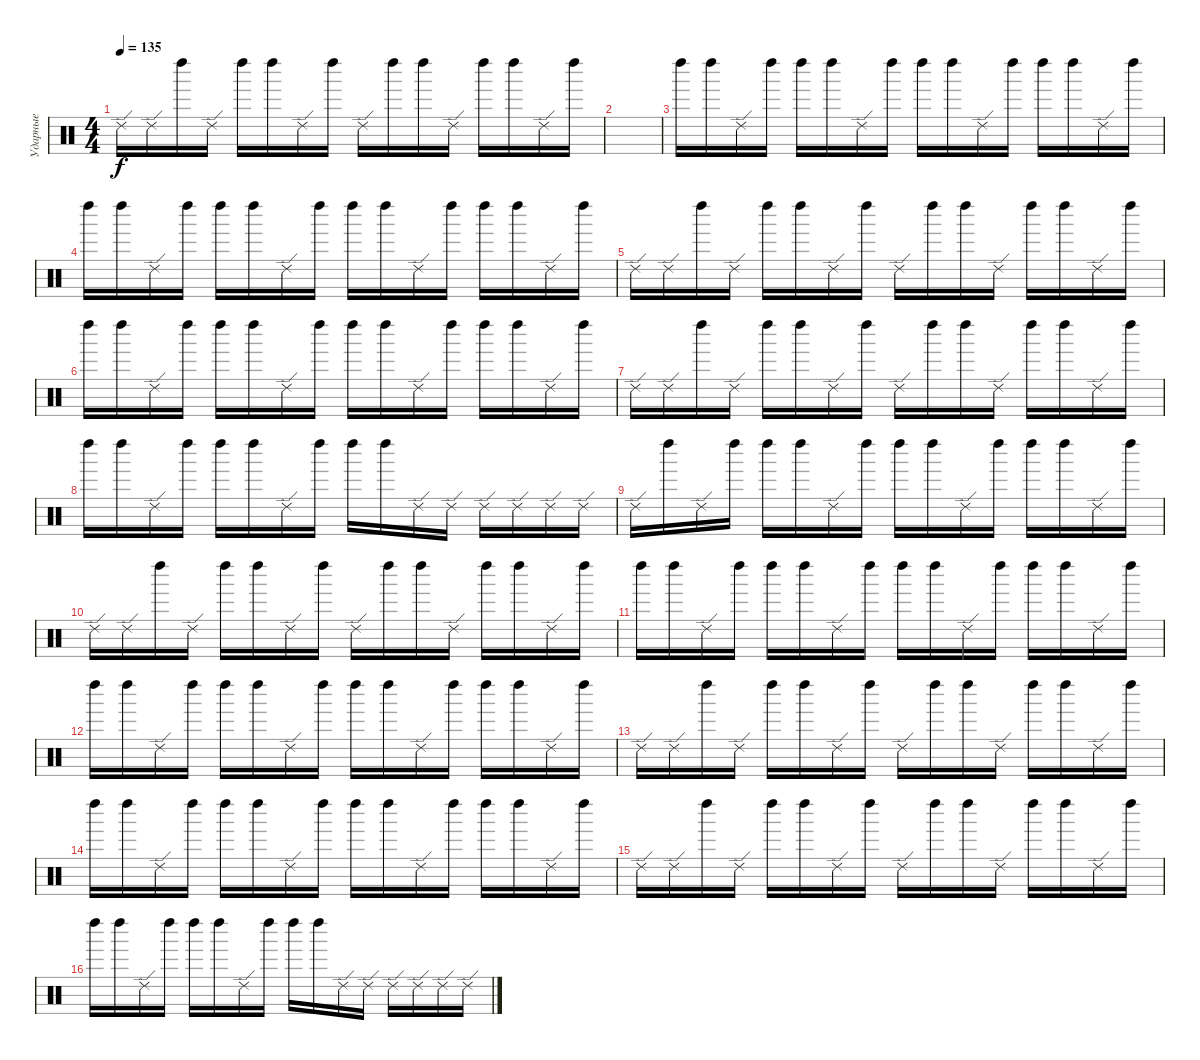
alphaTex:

\track ("Ударные" "Ударные") {instrument percussion}
\staff {score}
\articulation defaults
\ts (4 4)
\tempo 135
\clef neutral
\ks c "Ride (edge) 2".16{dy f} "Ride (edge) 2".16 "Left Maraca (hit)".16 "Ride (edge) 2".16 "Left Maraca (hit)".16 "Left Maraca (hit)".16 "Ride (edge) 2".16 "Left Maraca (hit)".16 "Ride (edge) 2".16 "Left Maraca (hit)".16 "Left Maraca (hit)".16 "Ride (edge) 2".16 "Left Maraca (hit)".16 "Left Maraca (hit)".16 "Ride (edge) 2".16 "Left Maraca (hit)".16
|
|
"Left Maraca (hit)".16 "Left Maraca (hit)".16 "Ride (edge) 2".16 "Left Maraca (hit)".16 "Left Maraca (hit)".16 "Left Maraca (hit)".16 "Ride (edge) 2".16 "Left Maraca (hit)".16 "Left Maraca (hit)".16 "Left Maraca (hit)".16 "Ride (edge) 2".16 "Left Maraca (hit)".16 "Left Maraca (hit)".16 "Left Maraca (hit)".16 "Ride (edge) 2".16 "Left Maraca (hit)".16 |
"Left Maraca (hit)".16 "Left Maraca (hit)".16 "Ride (edge) 2".16 "Left Maraca (hit)".16 "Left Maraca (hit)".16 "Left Maraca (hit)".16 "Ride (edge) 2".16 "Left Maraca (hit)".16 "Left Maraca (hit)".16 "Left Maraca (hit)".16 "Ride (edge) 2".16 "Left Maraca (hit)".16 "Left Maraca (hit)".16 "Left Maraca (hit)".16 "Ride (edge) 2".16 "Left Maraca (hit)".16 |
"Ride (edge) 2".16 "Ride (edge) 2".16 "Left Maraca (hit)".16 "Ride (edge) 2".16 "Left Maraca (hit)".16 "Left Maraca (hit)".16 "Ride (edge) 2".16 "Left Maraca (hit)".16 "Ride (edge) 2".16 "Left Maraca (hit)".16 "Left Maraca (hit)".16 "Ride (edge) 2".16 "Left Maraca (hit)".16 "Left Maraca (hit)".16 "Ride (edge) 2".16 "Left Maraca (hit)".16 |
"Left Maraca (hit)".16 "Left Maraca (hit)".16 "Ride (edge) 2".16 "Left Maraca (hit)".16 "Left Maraca (hit)".16 "Left Maraca (hit)".16 "Ride (edge) 2".16 "Left Maraca (hit)".16 "Left Maraca (hit)".16 "Left Maraca (hit)".16 "Ride (edge) 2".16 "Left Maraca (hit)".16 "Left Maraca (hit)".16 "Left Maraca (hit)".16 "Ride (edge) 2".16 "Left Maraca (hit)".16 |
"Ride (edge) 2".16 "Ride (edge) 2".16 "Left Maraca (hit)".16 "Ride (edge) 2".16 "Left Maraca (hit)".16 "Left Maraca (hit)".16 "Ride (edge) 2".16 "Left Maraca (hit)".16 "Ride (edge) 2".16 "Left Maraca (hit)".16 "Left Maraca (hit)".16 "Ride (edge) 2".16 "Left Maraca (hit)".16 "Left Maraca (hit)".16 "Ride (edge) 2".16 "Left Maraca (hit)".16 |
"Left Maraca (hit)".16 "Left Maraca (hit)".16 "Ride (edge) 2".16 "Left Maraca (hit)".16 "Left Maraca (hit)".16 "Left Maraca (hit)".16 "Ride (edge) 2".16 "Left Maraca (hit)".16 "Left Maraca (hit)".16 "Left Maraca (hit)".16 "Ride (edge) 2".16 "Ride (edge) 2".16 "Ride (edge) 2".16 "Ride (edge) 2".16 "Ride (edge) 2".16 "Ride (edge) 2".16 |
"Ride (edge) 2".16 "Left Maraca (hit)".16 "Ride (edge) 2".16 "Left Maraca (hit)".16 "Left Maraca (hit)".16 "Left Maraca (hit)".16 "Ride (edge) 2".16 "Left Maraca (hit)".16 "Left Maraca (hit)".16 "Left Maraca (hit)".16 "Ride (edge) 2".16 "Left Maraca (hit)".16 "Left Maraca (hit)".16 "Left Maraca (hit)".16 "Ride (edge) 2".16 "Left Maraca (hit)".16 |
"Ride (edge) 2".16 "Ride (edge) 2".16 "Left Maraca (hit)".16 "Ride (edge) 2".16 "Left Maraca (hit)".16 "Left Maraca (hit)".16 "Ride (edge) 2".16 "Left Maraca (hit)".16 "Ride (edge) 2".16 "Left Maraca (hit)".16 "Left Maraca (hit)".16 "Ride (edge) 2".16 "Left Maraca (hit)".16 "Left Maraca (hit)".16 "Ride (edge) 2".16 "Left Maraca (hit)".16 |
"Left Maraca (hit)".16 "Left Maraca (hit)".16 "Ride (edge) 2".16 "Left Maraca (hit)".16 "Left Maraca (hit)".16 "Left Maraca (hit)".16 "Ride (edge) 2".16 "Left Maraca (hit)".16 "Left Maraca (hit)".16 "Left Maraca (hit)".16 "Ride (edge) 2".16 "Left Maraca (hit)".16 "Left Maraca (hit)".16 "Left Maraca (hit)".16 "Ride (edge) 2".16 "Left Maraca (hit)".16 |
"Left Maraca (hit)".16 "Left Maraca (hit)".16 "Ride (edge) 2".16 "Left Maraca (hit)".16 "Left Maraca (hit)".16 "Left Maraca (hit)".16 "Ride (edge) 2".16 "Left Maraca (hit)".16 "Left Maraca (hit)".16 "Left Maraca (hit)".16 "Ride (edge) 2".16 "Left Maraca (hit)".16 "Left Maraca (hit)".16 "Left Maraca (hit)".16 "Ride (edge) 2".16 "Left Maraca (hit)".16 |
"Ride (edge) 2".16 "Ride (edge) 2".16 "Left Maraca (hit)".16 "Ride (edge) 2".16 "Left Maraca (hit)".16 "Left Maraca (hit)".16 "Ride (edge) 2".16 "Left Maraca (hit)".16 "Ride (edge) 2".16 "Left Maraca (hit)".16 "Left Maraca (hit)".16 "Ride (edge) 2".16 "Left Maraca (hit)".16 "Left Maraca (hit)".16 "Ride (edge) 2".16 "Left Maraca (hit)".16 |
"Left Maraca (hit)".16 "Left Maraca (hit)".16 "Ride (edge) 2".16 "Left Maraca (hit)".16 "Left Maraca (hit)".16 "Left Maraca (hit)".16 "Ride (edge) 2".16 "Left Maraca (hit)".16 "Left Maraca (hit)".16 "Left Maraca (hit)".16 "Ride (edge) 2".16 "Left Maraca (hit)".16 "Left Maraca (hit)".16 "Left Maraca (hit)".16 "Ride (edge) 2".16 "Left Maraca (hit)".16 |
"Ride (edge) 2".16 "Ride (edge) 2".16 "Left Maraca (hit)".16 "Ride (edge) 2".16 "Left Maraca (hit)".16 "Left Maraca (hit)".16 "Ride (edge) 2".16 "Left Maraca (hit)".16 "Ride (edge) 2".16 "Left Maraca (hit)".16 "Left Maraca (hit)".16 "Ride (edge) 2".16 "Left Maraca (hit)".16 "Left Maraca (hit)".16 "Ride (edge) 2".16 "Left Maraca (hit)".16 |
"Left Maraca (hit)".16 "Left Maraca (hit)".16 "Ride (edge) 2".16 "Left Maraca (hit)".16 "Left Maraca (hit)".16 "Left Maraca (hit)".16 "Ride (edge) 2".16 "Left Maraca (hit)".16 "Left Maraca (hit)".16 "Left Maraca (hit)".16 "Ride (edge) 2".16 "Ride (edge) 2".16 "Ride (edge) 2".16 "Ride (edge) 2".16 "Ride (edge) 2".16 "Ride (edge) 2".16
